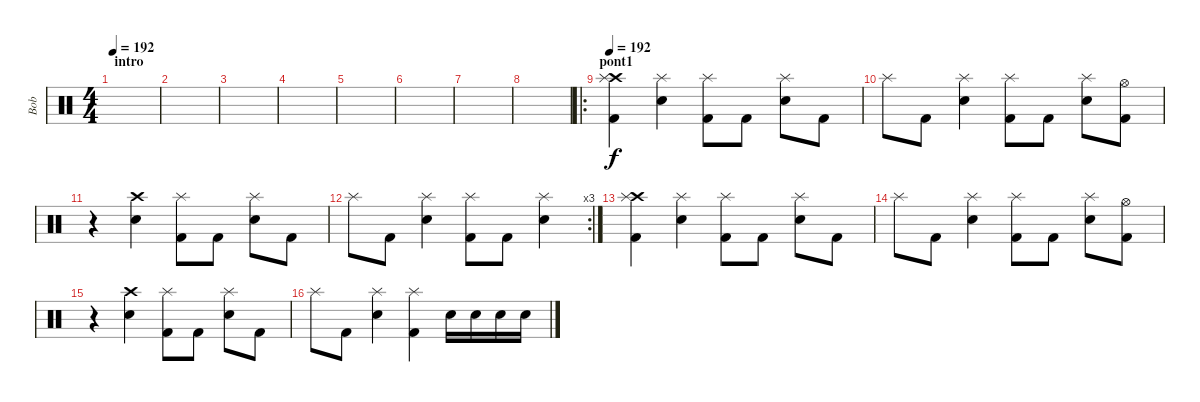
\track ("Bob" "Bob") {instrument percussion}
\staff {score}
\articulation defaults
\ts (4 4)
\section ("" "intro")
\tempo 192
\tempo 180
\tempo 192
\clef neutral
\ks c
|
|
|
|
|
|
|
|
\ro
\section ("" "pont1")
\tempo 192
("Crash high (hit)" "Splash (hit)" "Kick (hit) 2").4 ("Splash (hit)" "Electric Snare (hit)").4 ("Splash (hit)" "Kick (hit) 2").8 "Kick (hit) 2".8 ("Splash (hit)" "Electric Snare (hit)").8 "Kick (hit) 2".8 |
"Splash (hit)".8 "Kick (hit) 2".8 ("Splash (hit)" "Electric Snare (hit)").4 ("Splash (hit)" "Kick (hit) 2").8 "Kick (hit) 2".8 ("Splash (hit)" "Electric Snare (hit)").8 ("Hi-Hat (open)" "Kick (hit) 2").8 |
r.4 ("Crash high (hit)" "Electric Snare (hit)").4 ("Splash (hit)" "Kick (hit) 2").8 "Kick (hit) 2".8 ("Splash (hit)" "Electric Snare (hit)").8 "Kick (hit) 2".8 |
\rc 3 "Splash (hit)".8 "Kick (hit) 2".8
("Splash (hit)" "Electric Snare (hit)").4 ("Splash (hit)" "Kick (hit) 2").8 "Kick (hit) 2".8 ("Splash (hit)" "Electric Snare (hit)").4 |
("Crash high (hit)" "Splash (hit)" "Kick (hit) 2").4 ("Splash (hit)" "Electric Snare (hit)").4 ("Splash (hit)" "Kick (hit) 2").8 "Kick (hit) 2".8 ("Splash (hit)" "Electric Snare (hit)").8 "Kick (hit) 2".8 |
"Splash (hit)".8 "Kick (hit) 2".8 ("Splash (hit)" "Electric Snare (hit)").4 ("Splash (hit)" "Kick (hit) 2").8 "Kick (hit) 2".8 ("Splash (hit)" "Electric Snare (hit)").8 ("Hi-Hat (open)" "Kick (hit) 2").8 |
r.4 ("Crash high (hit)" "Electric Snare (hit)").4 ("Splash (hit)" "Kick (hit) 2").8 "Kick (hit) 2".8 ("Splash (hit)" "Electric Snare (hit)").8 "Kick (hit) 2".8 |
"Splash (hit)".8 "Kick (hit) 2".8 ("Splash (hit)" "Electric Snare (hit)").4 ("Splash (hit)" "Kick (hit) 2").4 "Electric Snare (hit)".16 "Electric Snare (hit)".16 "Electric Snare (hit)".16 "Electric Snare (hit)".16
